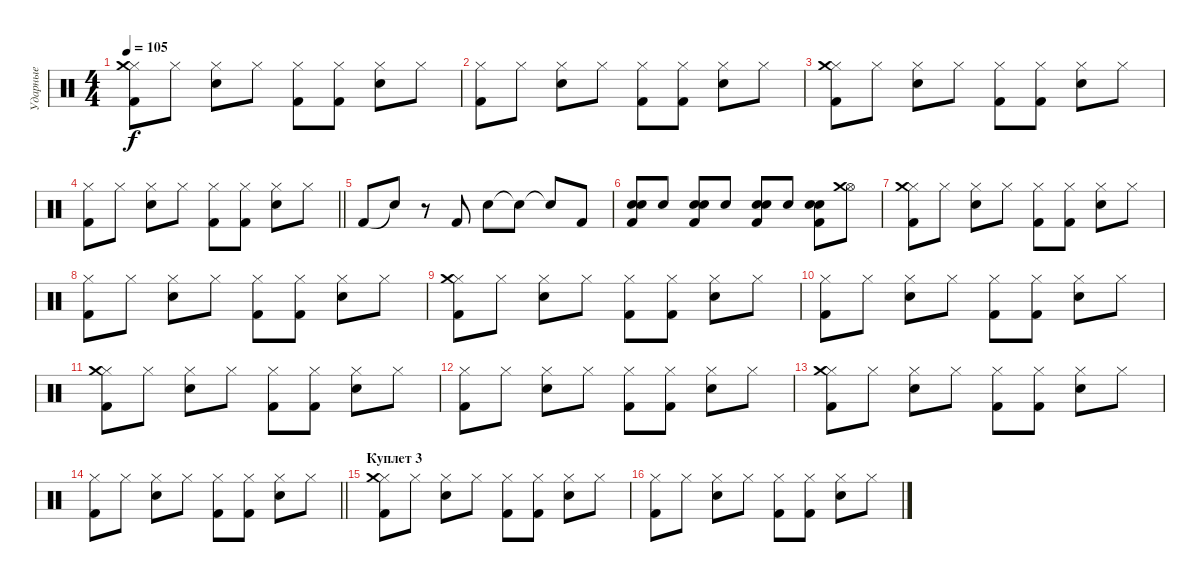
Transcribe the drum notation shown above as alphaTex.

\track ("Ударные" "Ударные") {instrument percussion}
\staff {score}
\articulation defaults
\ts (4 4)
\tempo 105
\clef neutral
\ks c
("Hi-Hat (closed)" "Kick (hit) 2" "Crash medium (hit)").8{dy f} "Hi-Hat (closed)".8 ("Hi-Hat (closed)" "Electric Snare (hit)").8 "Hi-Hat (closed)".8 ("Hi-Hat (closed)" "Kick (hit) 2").8 ("Hi-Hat (closed)" "Kick (hit) 2").8 ("Hi-Hat (closed)" "Electric Snare (hit)").8 "Hi-Hat (closed)".8 |
("Hi-Hat (closed)" "Kick (hit) 2").8 "Hi-Hat (closed)".8 ("Hi-Hat (closed)" "Electric Snare (hit)").8 "Hi-Hat (closed)".8 ("Hi-Hat (closed)" "Kick (hit) 2").8 ("Hi-Hat (closed)" "Kick (hit) 2").8 ("Hi-Hat (closed)" "Electric Snare (hit)").8 "Hi-Hat (closed)".8 |
("Hi-Hat (closed)" "Kick (hit) 2" "Crash medium (hit)").8 "Hi-Hat (closed)".8 ("Hi-Hat (closed)" "Electric Snare (hit)").8 "Hi-Hat (closed)".8 ("Hi-Hat (closed)" "Kick (hit) 2").8 ("Hi-Hat (closed)" "Kick (hit) 2").8 ("Hi-Hat (closed)" "Electric Snare (hit)").8 "Hi-Hat (closed)".8 |
\barLineRight lightlight
("Hi-Hat (closed)" "Kick (hit) 2").8 "Hi-Hat (closed)".8 ("Hi-Hat (closed)" "Electric Snare (hit)").8 "Hi-Hat (closed)".8 ("Hi-Hat (closed)" "Kick (hit) 2").8 ("Hi-Hat (closed)" "Kick (hit) 2").8 ("Hi-Hat (closed)" "Electric Snare (hit)").8 "Hi-Hat (closed)".8 |
\section ("" "")
"Kick (hit) 2".8 "Snare (hit)"{t}.8 r.8 "Kick (hit) 2".8 "Electric Snare (hit)".8 "Snare (hit)"{t}.8 "Snare (hit)"{t}.8 "Kick (hit) 2".8 |
("Electric Snare (hit)" "Kick (hit) 2" "Electric Snare (hit)").8 "Electric Snare (hit)".8 ("Electric Snare (hit)" "Kick (hit) 2" "Electric Snare (hit)").8 "Electric Snare (hit)".8 ("Electric Snare (hit)" "Kick (hit) 2" "Electric Snare (hit)").8 "Electric Snare (hit)".8 ("Electric Snare (hit)" "Kick (hit) 2" "Electric Snare (hit)").8 ("Hi-Hat (open)" "Crash medium (hit)").8 |
("Hi-Hat (closed)" "Kick (hit) 2" "Crash medium (hit)").8 "Hi-Hat (closed)".8 ("Hi-Hat (closed)" "Electric Snare (hit)").8 "Hi-Hat (closed)".8 ("Hi-Hat (closed)" "Kick (hit) 2").8 ("Hi-Hat (closed)" "Kick (hit) 2").8 ("Hi-Hat (closed)" "Electric Snare (hit)").8 "Hi-Hat (closed)".8 |
("Hi-Hat (closed)" "Kick (hit) 2").8 "Hi-Hat (closed)".8 ("Hi-Hat (closed)" "Electric Snare (hit)").8 "Hi-Hat (closed)".8 ("Hi-Hat (closed)" "Kick (hit) 2").8 ("Hi-Hat (closed)" "Kick (hit) 2").8 ("Hi-Hat (closed)" "Electric Snare (hit)").8 "Hi-Hat (closed)".8 |
("Hi-Hat (closed)" "Kick (hit) 2" "Crash medium (hit)").8 "Hi-Hat (closed)".8 ("Hi-Hat (closed)" "Electric Snare (hit)").8 "Hi-Hat (closed)".8 ("Hi-Hat (closed)" "Kick (hit) 2").8 ("Hi-Hat (closed)" "Kick (hit) 2").8 ("Hi-Hat (closed)" "Electric Snare (hit)").8 "Hi-Hat (closed)".8 |
("Hi-Hat (closed)" "Kick (hit) 2").8 "Hi-Hat (closed)".8 ("Hi-Hat (closed)" "Electric Snare (hit)").8 "Hi-Hat (closed)".8 ("Hi-Hat (closed)" "Kick (hit) 2").8 ("Hi-Hat (closed)" "Kick (hit) 2").8 ("Hi-Hat (closed)" "Electric Snare (hit)").8 "Hi-Hat (closed)".8 |
("Hi-Hat (closed)" "Kick (hit) 2" "Crash medium (hit)").8 "Hi-Hat (closed)".8 ("Hi-Hat (closed)" "Electric Snare (hit)").8 "Hi-Hat (closed)".8 ("Hi-Hat (closed)" "Kick (hit) 2").8 ("Hi-Hat (closed)" "Kick (hit) 2").8 ("Hi-Hat (closed)" "Electric Snare (hit)").8 "Hi-Hat (closed)".8 |
("Hi-Hat (closed)" "Kick (hit) 2").8 "Hi-Hat (closed)".8 ("Hi-Hat (closed)" "Electric Snare (hit)").8 "Hi-Hat (closed)".8 ("Hi-Hat (closed)" "Kick (hit) 2").8 ("Hi-Hat (closed)" "Kick (hit) 2").8 ("Hi-Hat (closed)" "Electric Snare (hit)").8 "Hi-Hat (closed)".8 |
("Hi-Hat (closed)" "Kick (hit) 2" "Crash medium (hit)").8 "Hi-Hat (closed)".8 ("Hi-Hat (closed)" "Electric Snare (hit)").8 "Hi-Hat (closed)".8 ("Hi-Hat (closed)" "Kick (hit) 2").8 ("Hi-Hat (closed)" "Kick (hit) 2").8 ("Hi-Hat (closed)" "Electric Snare (hit)").8 "Hi-Hat (closed)".8 |
\barLineRight lightlight
("Hi-Hat (closed)" "Kick (hit) 2").8 "Hi-Hat (closed)".8 ("Hi-Hat (closed)" "Electric Snare (hit)").8 "Hi-Hat (closed)".8 ("Hi-Hat (closed)" "Kick (hit) 2").8 ("Hi-Hat (closed)" "Kick (hit) 2").8 ("Hi-Hat (closed)" "Electric Snare (hit)").8 "Hi-Hat (closed)".8 |
\section ("" "Куплет 3")
("Hi-Hat (closed)" "Kick (hit) 2" "Crash medium (hit)").8 "Hi-Hat (closed)".8 ("Hi-Hat (closed)" "Electric Snare (hit)").8 "Hi-Hat (closed)".8 ("Hi-Hat (closed)" "Kick (hit) 2").8 ("Hi-Hat (closed)" "Kick (hit) 2").8 ("Hi-Hat (closed)" "Electric Snare (hit)").8 "Hi-Hat (closed)".8 |
("Hi-Hat (closed)" "Kick (hit) 2").8 "Hi-Hat (closed)".8 ("Hi-Hat (closed)" "Electric Snare (hit)").8 "Hi-Hat (closed)".8 ("Hi-Hat (closed)" "Kick (hit) 2").8 ("Hi-Hat (closed)" "Kick (hit) 2").8 ("Hi-Hat (closed)" "Electric Snare (hit)").8 "Hi-Hat (closed)".8
